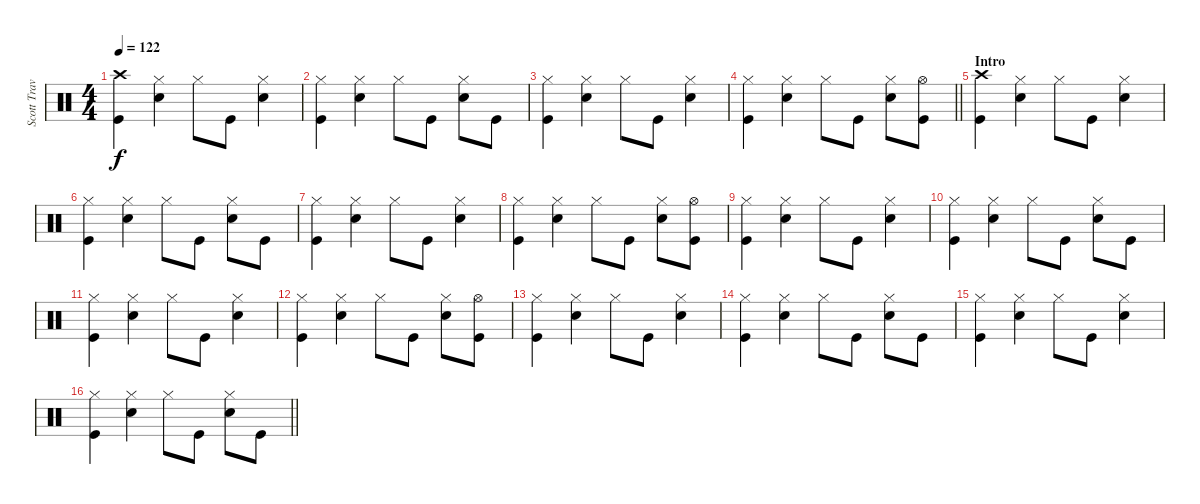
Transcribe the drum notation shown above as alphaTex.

\track ("Scott Travis" "Scott Trav") {instrument percussion}
\staff {score}
\articulation defaults
\ts (4 4)
\section ("" "")
\tempo 122
\clef neutral
\ks c
("Crash high (hit)" "Kick (hit)").4{dy f} ("Hi-Hat (closed)" "Snare (hit) 2").4 "Hi-Hat (closed)".8 "Kick (hit)".8 ("Hi-Hat (closed)" "Snare (hit) 2").4 |
("Hi-Hat (closed)" "Kick (hit)").4 ("Hi-Hat (closed)" "Snare (hit) 2").4 "Hi-Hat (closed)".8 "Kick (hit)".8 ("Hi-Hat (closed)" "Snare (hit) 2").8 "Kick (hit)".8 |
("Hi-Hat (closed)" "Kick (hit)").4 ("Hi-Hat (closed)" "Snare (hit) 2").4 "Hi-Hat (closed)".8 "Kick (hit)".8 ("Hi-Hat (closed)" "Snare (hit) 2").4 |
\barLineRight lightlight
("Hi-Hat (closed)" "Kick (hit)").4 ("Hi-Hat (closed)" "Snare (hit) 2").4 "Hi-Hat (closed)".8 "Kick (hit)".8 ("Hi-Hat (closed)" "Snare (hit) 2").8 ("Hi-Hat (open)" "Kick (hit)").8 |
\section ("" "Intro")
("Crash high (hit)" "Kick (hit)").4 ("Hi-Hat (closed)" "Snare (hit) 2").4 "Hi-Hat (closed)".8 "Kick (hit)".8 ("Hi-Hat (closed)" "Snare (hit) 2").4 |
("Hi-Hat (closed)" "Kick (hit)").4 ("Hi-Hat (closed)" "Snare (hit) 2").4 "Hi-Hat (closed)".8 "Kick (hit)".8 ("Hi-Hat (closed)" "Snare (hit) 2").8 "Kick (hit)".8 |
("Hi-Hat (closed)" "Kick (hit)").4 ("Hi-Hat (closed)" "Snare (hit) 2").4 "Hi-Hat (closed)".8 "Kick (hit)".8 ("Hi-Hat (closed)" "Snare (hit) 2").4 |
("Hi-Hat (closed)" "Kick (hit)").4 ("Hi-Hat (closed)" "Snare (hit) 2").4 "Hi-Hat (closed)".8 "Kick (hit)".8 ("Hi-Hat (closed)" "Snare (hit) 2").8 ("Hi-Hat (open)" "Kick (hit)").8 |
("Hi-Hat (closed)" "Kick (hit)").4 ("Hi-Hat (closed)" "Snare (hit) 2").4 "Hi-Hat (closed)".8 "Kick (hit)".8 ("Hi-Hat (closed)" "Snare (hit) 2").4 |
("Hi-Hat (closed)" "Kick (hit)").4 ("Hi-Hat (closed)" "Snare (hit) 2").4 "Hi-Hat (closed)".8 "Kick (hit)".8 ("Hi-Hat (closed)" "Snare (hit) 2").8 "Kick (hit)".8 |
("Hi-Hat (closed)" "Kick (hit)").4 ("Hi-Hat (closed)" "Snare (hit) 2").4 "Hi-Hat (closed)".8 "Kick (hit)".8 ("Hi-Hat (closed)" "Snare (hit) 2").4 |
("Hi-Hat (closed)" "Kick (hit)").4 ("Hi-Hat (closed)" "Snare (hit) 2").4 "Hi-Hat (closed)".8 "Kick (hit)".8 ("Hi-Hat (closed)" "Snare (hit) 2").8 ("Hi-Hat (open)" "Kick (hit)").8 |
("Hi-Hat (closed)" "Kick (hit)").4 ("Hi-Hat (closed)" "Snare (hit) 2").4 "Hi-Hat (closed)".8 "Kick (hit)".8 ("Hi-Hat (closed)" "Snare (hit) 2").4 |
("Hi-Hat (closed)" "Kick (hit)").4 ("Hi-Hat (closed)" "Snare (hit) 2").4 "Hi-Hat (closed)".8 "Kick (hit)".8 ("Hi-Hat (closed)" "Snare (hit) 2").8 "Kick (hit)".8 |
("Hi-Hat (closed)" "Kick (hit)").4 ("Hi-Hat (closed)" "Snare (hit) 2").4 "Hi-Hat (closed)".8 "Kick (hit)".8 ("Hi-Hat (closed)" "Snare (hit) 2").4 |
\barLineRight lightlight
("Hi-Hat (closed)" "Kick (hit)").4 ("Hi-Hat (closed)" "Snare (hit) 2").4 "Hi-Hat (closed)".8 "Kick (hit)".8 ("Hi-Hat (closed)" "Snare (hit) 2").8 "Kick (hit)".8
